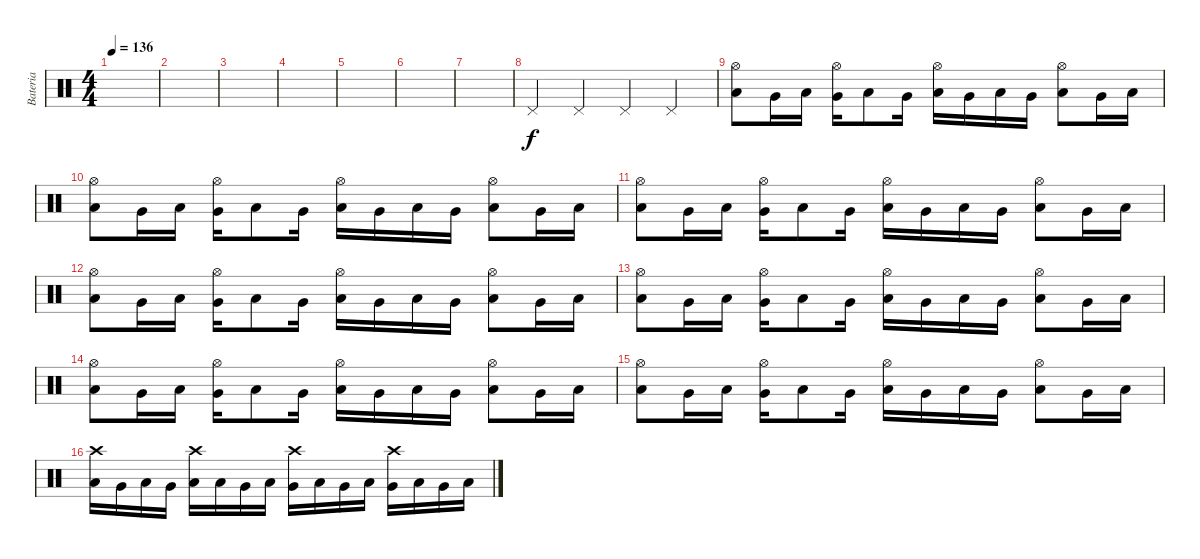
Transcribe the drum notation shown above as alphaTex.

\track ("Bateria" "Bateria") {instrument percussion}
\staff {score}
\articulation defaults
\ts (4 4)
\tempo 136
\clef neutral
\ks c
|
|
|
|
|
|
|
"Pedal Hi-Hat (hit)".4 "Pedal Hi-Hat (hit)".4 "Pedal Hi-Hat (hit)".4 "Pedal Hi-Hat (hit)".4 |
("Hi-Hat (open)" "Low Tom (hit)").8 "Very Low Tom (hit)".16 "Low Tom (hit)".16 ("Hi-Hat (open)" "Very Low Tom (hit)").16 "Low Tom (hit)".8 "Very Low Tom (hit)".16 ("Hi-Hat (open)" "Low Floor Tom (hit)").16 "Very Low Tom (hit)".16 "Low Floor Tom (hit)".16 "Very Low Tom (hit)".16 ("Hi-Hat (open)" "Low Tom (hit)").8 "Very Low Tom (hit)".16 "Low Tom (hit)".16 |
("Hi-Hat (open)" "Low Tom (hit)").8 "Very Low Tom (hit)".16 "Low Tom (hit)".16 ("Hi-Hat (open)" "Very Low Tom (hit)").16 "Low Tom (hit)".8 "Very Low Tom (hit)".16 ("Hi-Hat (open)" "Low Floor Tom (hit)").16 "Very Low Tom (hit)".16 "Low Floor Tom (hit)".16 "Very Low Tom (hit)".16 ("Hi-Hat (open)" "Low Tom (hit)").8 "Very Low Tom (hit)".16 "Low Tom (hit)".16 |
("Hi-Hat (open)" "Low Tom (hit)").8 "Very Low Tom (hit)".16 "Low Tom (hit)".16 ("Hi-Hat (open)" "Very Low Tom (hit)").16 "Low Tom (hit)".8 "Very Low Tom (hit)".16 ("Hi-Hat (open)" "Low Floor Tom (hit)").16 "Very Low Tom (hit)".16 "Low Floor Tom (hit)".16 "Very Low Tom (hit)".16 ("Hi-Hat (open)" "Low Tom (hit)").8 "Very Low Tom (hit)".16 "Low Tom (hit)".16 |
("Hi-Hat (open)" "Low Tom (hit)").8 "Very Low Tom (hit)".16 "Low Tom (hit)".16 ("Hi-Hat (open)" "Very Low Tom (hit)").16 "Low Tom (hit)".8 "Very Low Tom (hit)".16 ("Hi-Hat (open)" "Low Floor Tom (hit)").16 "Very Low Tom (hit)".16 "Low Floor Tom (hit)".16 "Very Low Tom (hit)".16 ("Hi-Hat (open)" "Low Tom (hit)").8 "Very Low Tom (hit)".16 "Low Tom (hit)".16 |
("Hi-Hat (open)" "Low Tom (hit)").8 "Very Low Tom (hit)".16 "Low Tom (hit)".16 ("Hi-Hat (open)" "Very Low Tom (hit)").16 "Low Tom (hit)".8 "Very Low Tom (hit)".16 ("Hi-Hat (open)" "Low Floor Tom (hit)").16 "Very Low Tom (hit)".16 "Low Floor Tom (hit)".16 "Very Low Tom (hit)".16 ("Hi-Hat (open)" "Low Tom (hit)").8 "Very Low Tom (hit)".16 "Low Tom (hit)".16 |
("Hi-Hat (open)" "Low Tom (hit)").8 "Very Low Tom (hit)".16 "Low Tom (hit)".16 ("Hi-Hat (open)" "Very Low Tom (hit)").16 "Low Tom (hit)".8 "Very Low Tom (hit)".16 ("Hi-Hat (open)" "Low Floor Tom (hit)").16 "Very Low Tom (hit)".16 "Low Floor Tom (hit)".16 "Very Low Tom (hit)".16 ("Hi-Hat (open)" "Low Tom (hit)").8 "Very Low Tom (hit)".16 "Low Tom (hit)".16 |
("Hi-Hat (open)" "Low Tom (hit)").8 "Very Low Tom (hit)".16 "Low Tom (hit)".16 ("Hi-Hat (open)" "Very Low Tom (hit)").16 "Low Tom (hit)".8 "Very Low Tom (hit)".16 ("Hi-Hat (open)" "Low Floor Tom (hit)").16 "Very Low Tom (hit)".16 "Low Floor Tom (hit)".16 "Very Low Tom (hit)".16 ("Hi-Hat (open)" "Low Tom (hit)").8 "Very Low Tom (hit)".16 "Low Tom (hit)".16 |
("Crash high (hit)" "Low Tom (hit)").16 "Very Low Tom (hit)".16 "Low Tom (hit)".16 "Very Low Tom (hit)".16 ("Crash high (hit)" "Low Floor Tom (hit)").16 "Low Tom (hit)".16 "Very Low Tom (hit)".16 "Low Floor Tom (hit)".16 ("Crash high (hit)" "Very Low Tom (hit)").16 "Low Floor Tom (hit)".16 "Very Low Tom (hit)".16 "Low Tom (hit)".16 ("Crash high (hit)" "Very Low Tom (hit)").16 "Low Tom (hit)".16 "Very Low Tom (hit)".16 "Low Tom (hit)".16
